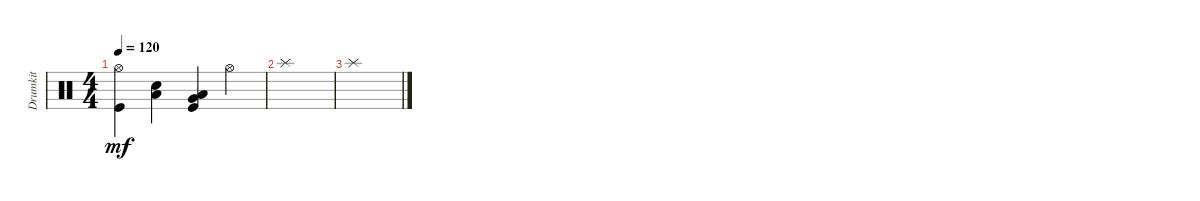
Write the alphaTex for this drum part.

\track ("Drumkit" "Drumkit") {instrument percussion}
\staff {score}
\articulation defaults
\ts (4 4)
\tempo 120
\clef neutral
\ks c
("Kick (hit)" "Hi-Hat (open)").4{dy mf} ("Low Floor Tom (hit)" "Snare (hit) 2").4 ("Very Low Tom (hit)" "Low Floor Tom (hit)" "Kick (hit)").4 "Hi-Hat (open)".4 |
"Splash (hit)".1 |
"Splash (hit)".1
